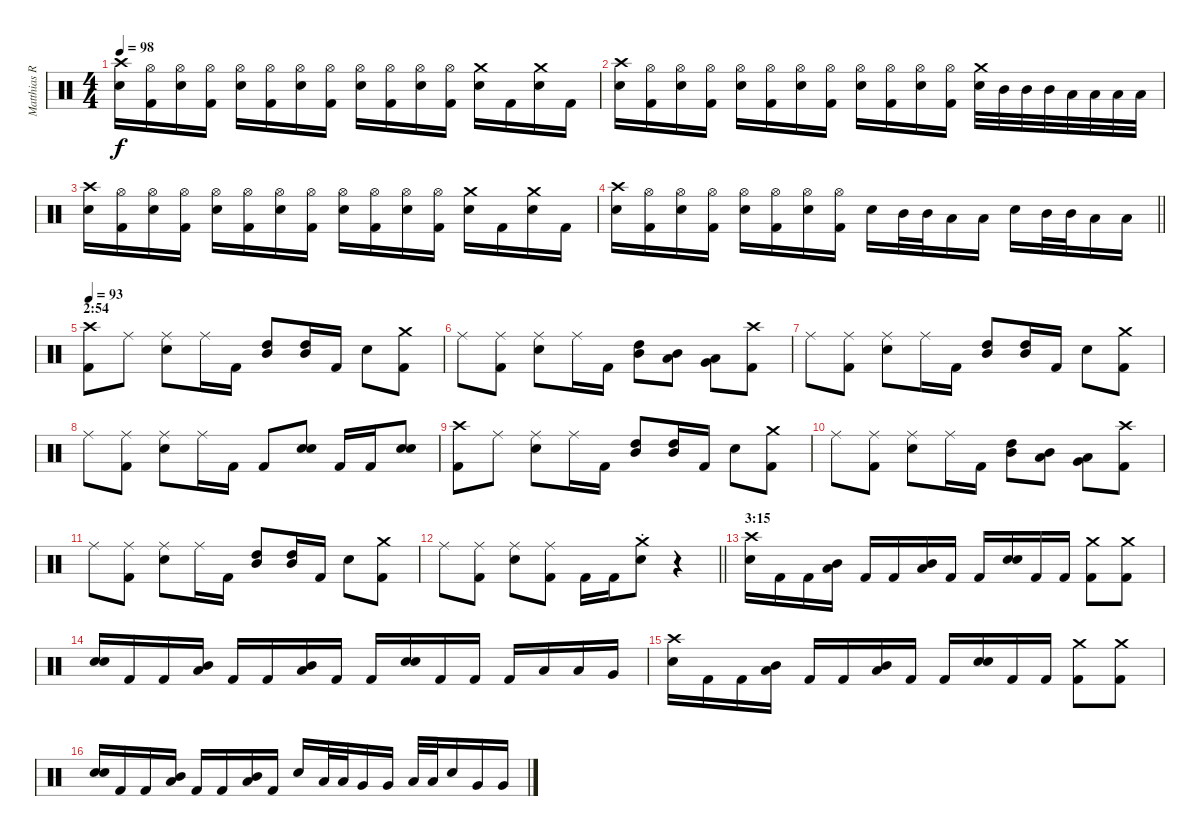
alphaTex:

\track ("Matthias R." "Matthias R") {instrument percussion}
\staff {score}
\articulation defaults
\ts (4 4)
\tempo 98
\clef neutral
\ks c
("Snare (hit) 2" "Crash high (hit)").16{dy f} ("Kick (hit) 2" "Hi-Hat (open)").16 ("Snare (hit) 2" "Hi-Hat (open)").16 ("Kick (hit) 2" "Hi-Hat (open)").16 ("Snare (hit) 2" "Hi-Hat (open)").16 ("Kick (hit) 2" "Hi-Hat (open)").16 ("Snare (hit) 2" "Hi-Hat (open)").16 ("Kick (hit) 2" "Hi-Hat (open)").16 ("Snare (hit) 2" "Hi-Hat (open)").16 ("Kick (hit) 2" "Hi-Hat (open)").16 ("Snare (hit) 2" "Hi-Hat (open)").16 ("Kick (hit) 2" "Hi-Hat (open)").16 ("Snare (hit) 2" "Crash medium (hit)").16 "Kick (hit) 2".16 ("Snare (hit) 2" "Crash medium (hit)").16 "Kick (hit) 2".16 |
("Snare (hit) 2" "Crash high (hit)").16 ("Kick (hit) 2" "Hi-Hat (open)").16 ("Snare (hit) 2" "Hi-Hat (open)").16 ("Kick (hit) 2" "Hi-Hat (open)").16 ("Snare (hit) 2" "Hi-Hat (open)").16 ("Kick (hit) 2" "Hi-Hat (open)").16 ("Snare (hit) 2" "Hi-Hat (open)").16 ("Kick (hit) 2" "Hi-Hat (open)").16 ("Snare (hit) 2" "Hi-Hat (open)").16 ("Kick (hit) 2" "Hi-Hat (open)").16 ("Snare (hit) 2" "Hi-Hat (open)").16 ("Kick (hit) 2" "Hi-Hat (open)").16 ("Snare (hit) 2" "Crash medium (hit)").32 "Mid Tom (hit)".32 "Mid Tom (hit)".32 "Mid Tom (hit)".32 "Low Tom (hit)".32 "Low Tom (hit)".32 "Low Tom (hit)".32 "Low Tom (hit)".32 |
("Snare (hit) 2" "Crash high (hit)").16 ("Kick (hit) 2" "Hi-Hat (open)").16 ("Snare (hit) 2" "Hi-Hat (open)").16 ("Kick (hit) 2" "Hi-Hat (open)").16 ("Snare (hit) 2" "Hi-Hat (open)").16 ("Kick (hit) 2" "Hi-Hat (open)").16 ("Snare (hit) 2" "Hi-Hat (open)").16 ("Kick (hit) 2" "Hi-Hat (open)").16 ("Snare (hit) 2" "Hi-Hat (open)").16 ("Kick (hit) 2" "Hi-Hat (open)").16 ("Snare (hit) 2" "Hi-Hat (open)").16 ("Kick (hit) 2" "Hi-Hat (open)").16 ("Snare (hit) 2" "Crash medium (hit)").16 "Kick (hit) 2".16 ("Snare (hit) 2" "Crash medium (hit)").16 "Kick (hit) 2".16 |
\barLineRight lightlight
("Snare (hit) 2" "Crash high (hit)").16 ("Kick (hit) 2" "Hi-Hat (open)").16 ("Snare (hit) 2" "Hi-Hat (open)").16 ("Kick (hit) 2" "Hi-Hat (open)").16 ("Snare (hit) 2" "Hi-Hat (open)").16 ("Kick (hit) 2" "Hi-Hat (open)").16 ("Snare (hit) 2" "Hi-Hat (open)").16 ("Kick (hit) 2" "Hi-Hat (open)").16 "Snare (hit) 2".16 "Mid Tom (hit)".32 "Mid Tom (hit)".32 "Low Tom (hit)".16 "Low Tom (hit)".16 "Snare (hit) 2".16 "Mid Tom (hit)".32 "Mid Tom (hit)".32 "Low Tom (hit)".16 "Low Tom (hit)".16 |
\section ("" "2:54")
\tempo 93
("Kick (hit) 2" "Crash high (hit)").8 "Ride (middle)".8 ("Snare (hit) 2" "Ride (middle)").8 "Ride (middle)".16 "Kick (hit) 2".16 ("High Tom (hit)" "Mid Tom (hit)").8 ("High Tom (hit)" "Mid Tom (hit)").16 "Kick (hit) 2".16 "Snare (hit) 2".8 ("Kick (hit) 2" "Crash medium (hit)").8 |
"Ride (middle)".8 ("Kick (hit) 2" "Ride (middle)").8 ("Snare (hit) 2" "Ride (middle)").8 "Ride (middle)".16 "Kick (hit) 2".16 ("High Tom (hit)" "Mid Tom (hit)").8 ("Mid Tom (hit)" "Low Tom (hit)").8 ("Low Tom (hit)" "Very Low Tom (hit)").8 ("Kick (hit) 2" "Crash high (hit)").8 |
"Ride (middle)".8 ("Kick (hit) 2" "Ride (middle)").8 ("Snare (hit) 2" "Ride (middle)").8 "Ride (middle)".16 "Kick (hit) 2".16 ("High Tom (hit)" "Mid Tom (hit)").8 ("High Tom (hit)" "Mid Tom (hit)").16 "Kick (hit) 2".16 "Snare (hit) 2".8 ("Kick (hit) 2" "Crash medium (hit)").8 |
"Ride (middle)".8 ("Kick (hit) 2" "Ride (middle)").8 ("Snare (hit) 2" "Ride (middle)").8 "Ride (middle)".16 "Kick (hit) 2".16 "Kick (hit) 2".8 ("Snare (hit) 2" "Electric Snare (hit)").8{bu 30} "Kick (hit) 2".16 "Kick (hit) 2".16 ("Snare (hit) 2" "Electric Snare (hit)").8{bu 30} |
("Kick (hit) 2" "Crash high (hit)").8 "Ride (middle)".8 ("Snare (hit) 2" "Ride (middle)").8 "Ride (middle)".16 "Kick (hit) 2".16 ("High Tom (hit)" "Mid Tom (hit)").8 ("High Tom (hit)" "Mid Tom (hit)").16 "Kick (hit) 2".16 "Snare (hit) 2".8 ("Kick (hit) 2" "Crash medium (hit)").8 |
"Ride (middle)".8 ("Kick (hit) 2" "Ride (middle)").8 ("Snare (hit) 2" "Ride (middle)").8 "Ride (middle)".16 "Kick (hit) 2".16 ("High Tom (hit)" "Mid Tom (hit)").8 ("Mid Tom (hit)" "Low Tom (hit)").8 ("Low Tom (hit)" "Very Low Tom (hit)").8 ("Kick (hit) 2" "Crash high (hit)").8 |
"Ride (middle)".8 ("Kick (hit) 2" "Ride (middle)").8 ("Snare (hit) 2" "Ride (middle)").8 "Ride (middle)".16 "Kick (hit) 2".16 ("High Tom (hit)" "Mid Tom (hit)").8 ("High Tom (hit)" "Mid Tom (hit)").16 "Kick (hit) 2".16 "Snare (hit) 2".8 ("Kick (hit) 2" "Crash medium (hit)").8 |
\barLineRight lightlight "Ride (middle)".8
("Kick (hit) 2" "Ride (middle)").8 ("Snare (hit) 2" "Ride (middle)").8 ("Kick (hit) 2" "Ride (middle)").8 "Kick (hit) 2".16 "Kick (hit) 2".16 ("Snare (hit) 2"{st} "Crash medium (hit)"{st}).8 r.4 |
\section ("" "3:15")
("Snare (hit) 2" "Crash high (hit)").16 "Kick (hit) 2".16 "Kick (hit) 2".16 ("Mid Tom (hit)" "Low Tom (hit)").16 "Kick (hit) 2".16 "Kick (hit) 2".16 ("Mid Tom (hit)" "Low Tom (hit)").16 "Kick (hit) 2".16 "Kick (hit) 2".16 ("Snare (hit) 2" "Electric Snare (hit)").16 "Kick (hit) 2".16 "Kick (hit) 2".16 ("Kick (hit) 2" "Crash medium (hit)").8 ("Kick (hit) 2" "Crash medium (hit)").8 |
("Snare (hit) 2" "Electric Snare (hit)").16 "Kick (hit) 2".16 "Kick (hit) 2".16 ("Mid Tom (hit)" "Low Tom (hit)").16 "Kick (hit) 2".16 "Kick (hit) 2".16 ("Mid Tom (hit)" "Low Tom (hit)").16 "Kick (hit) 2".16 "Kick (hit) 2".16 ("Snare (hit) 2" "Electric Snare (hit)").16 "Kick (hit) 2".16 "Kick (hit) 2".16 "Kick (hit) 2".16 "Low Tom (hit)".16 "Low Tom (hit)".16 "Very Low Tom (hit)".16 |
("Snare (hit) 2" "Crash high (hit)").16 "Kick (hit) 2".16 "Kick (hit) 2".16 ("Mid Tom (hit)" "Low Tom (hit)").16 "Kick (hit) 2".16 "Kick (hit) 2".16 ("Mid Tom (hit)" "Low Tom (hit)").16 "Kick (hit) 2".16 "Kick (hit) 2".16 ("Snare (hit) 2" "Electric Snare (hit)").16 "Kick (hit) 2".16 "Kick (hit) 2".16 ("Kick (hit) 2" "Crash medium (hit)").8 ("Kick (hit) 2" "Crash medium (hit)").8 |
("Snare (hit) 2" "Electric Snare (hit)").16 "Kick (hit) 2".16 "Kick (hit) 2".16 ("Mid Tom (hit)" "Low Tom (hit)").16 "Kick (hit) 2".16 "Kick (hit) 2".16 ("Mid Tom (hit)" "Low Tom (hit)").16 "Kick (hit) 2".16 "Snare (hit) 2".16 "Low Tom (hit)".32 "Low Tom (hit)".32 "Very Low Tom (hit)".16 "Very Low Tom (hit)".16 "Low Tom (hit)".32 "Low Tom (hit)".32 "Snare (hit) 2".16 "Very Low Tom (hit)".16 "Very Low Tom (hit)".16
